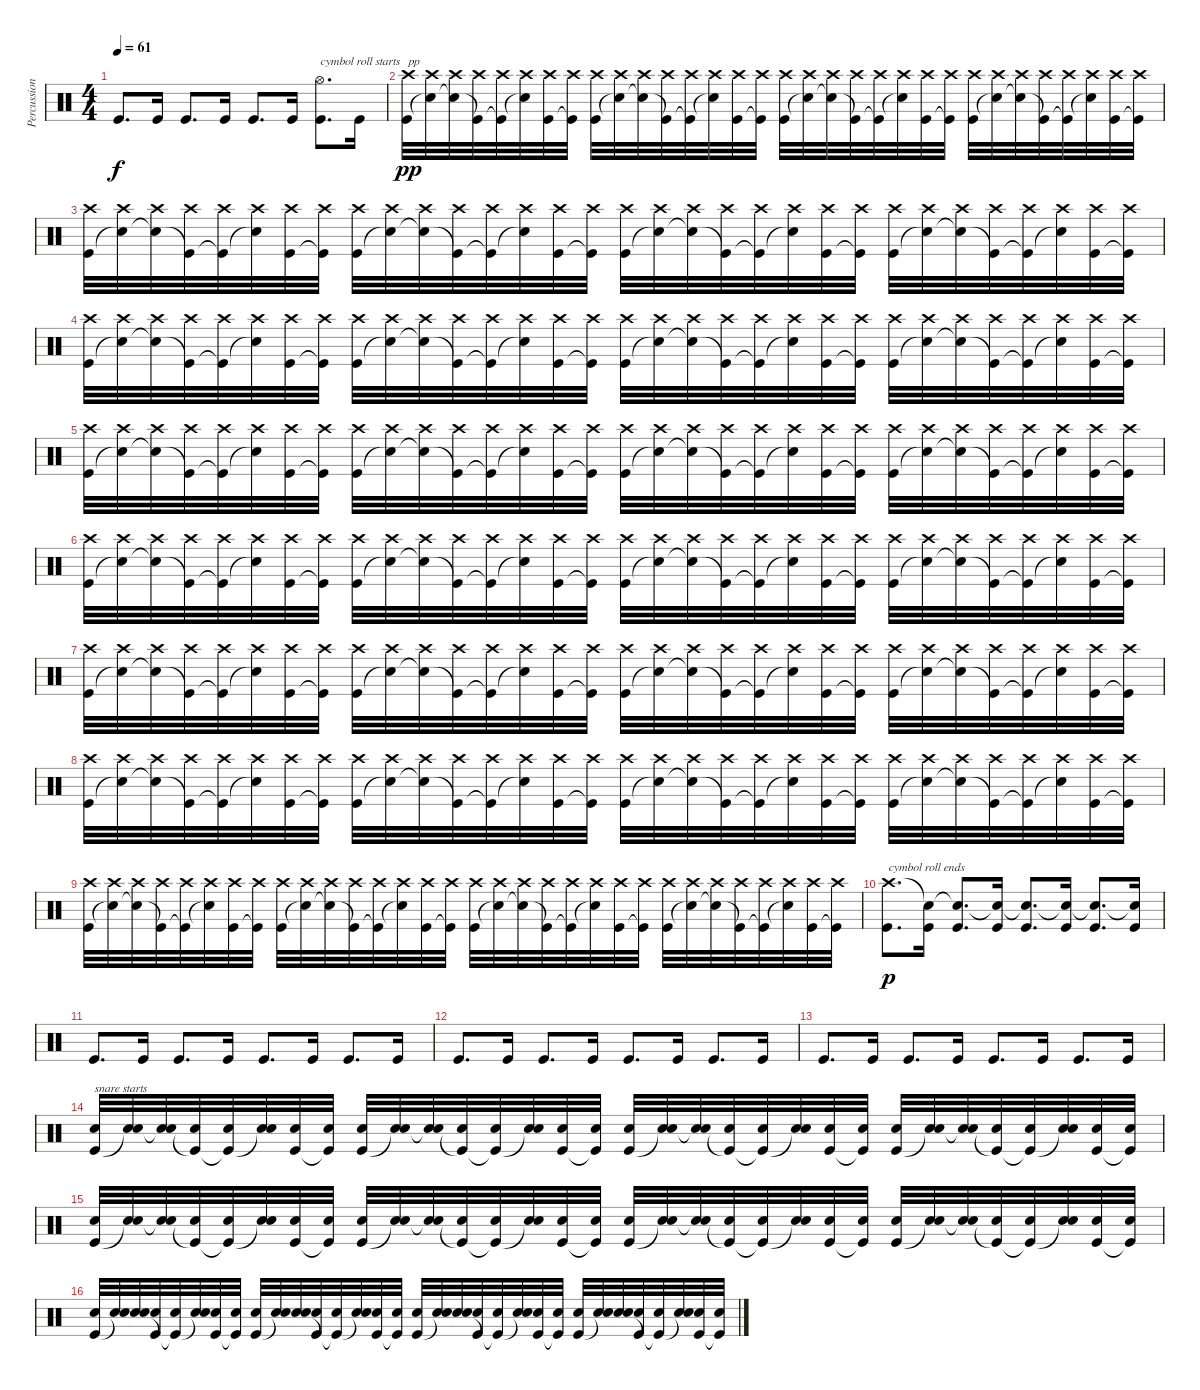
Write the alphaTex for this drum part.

\track ("Percussion" "Percussion") {instrument percussion}
\staff {score}
\articulation defaults
\ts (4 4)
\tempo 61
\clef neutral
\ks c "Kick (hit)".8{d dy f} "Kick (hit)".16 "Kick (hit)".8{d} "Kick (hit)".16 "Kick (hit)".8{d} "Kick (hit)".16
("Hi-Hat (open)" "Kick (hit)").8{d txt "cymbol roll starts"} "Kick (hit)".16 |
("Crash high (hit)" "Kick (hit)").32{txt "pp" dy pp} ("Crash high (hit)" "Snare (hit)"{t}).32 ("Crash high (hit)" "Snare (hit)"{t}).32 ("Crash high (hit)" "Kick (hit)"{t}).32 ("Crash high (hit)" "Kick (hit)"{t}).32 ("Crash high (hit)" "Snare (hit)"{t}).32 ("Crash high (hit)" "Kick (hit)").32 ("Crash high (hit)" "Kick (hit)"{t}).32 ("Crash high (hit)" "Kick (hit)").32 ("Crash high (hit)" "Snare (hit)"{t}).32 ("Crash high (hit)" "Snare (hit)"{t}).32 ("Crash high (hit)" "Kick (hit)"{t}).32 ("Crash high (hit)" "Kick (hit)"{t}).32 ("Crash high (hit)" "Snare (hit)"{t}).32 ("Crash high (hit)" "Kick (hit)").32 ("Crash high (hit)" "Kick (hit)"{t}).32 ("Crash high (hit)" "Kick (hit)").32 ("Crash high (hit)" "Snare (hit)"{t}).32 ("Crash high (hit)" "Snare (hit)"{t}).32 ("Crash high (hit)" "Kick (hit)"{t}).32 ("Crash high (hit)" "Kick (hit)"{t}).32 ("Crash high (hit)" "Snare (hit)"{t}).32 ("Crash high (hit)" "Kick (hit)").32 ("Crash high (hit)" "Kick (hit)"{t}).32 ("Crash high (hit)" "Kick (hit)").32 ("Crash high (hit)" "Snare (hit)"{t}).32 ("Crash high (hit)" "Snare (hit)"{t}).32 ("Crash high (hit)" "Kick (hit)"{t}).32 ("Crash high (hit)" "Kick (hit)"{t}).32 ("Crash high (hit)" "Snare (hit)"{t}).32 ("Crash high (hit)" "Kick (hit)").32 ("Crash high (hit)" "Kick (hit)"{t}).32 |
("Crash high (hit)" "Kick (hit)").32 ("Crash high (hit)" "Snare (hit)"{t}).32 ("Crash high (hit)" "Snare (hit)"{t}).32 ("Crash high (hit)" "Kick (hit)"{t}).32 ("Crash high (hit)" "Kick (hit)"{t}).32 ("Crash high (hit)" "Snare (hit)"{t}).32 ("Crash high (hit)" "Kick (hit)").32 ("Crash high (hit)" "Kick (hit)"{t}).32 ("Crash high (hit)" "Kick (hit)").32 ("Crash high (hit)" "Snare (hit)"{t}).32 ("Crash high (hit)" "Snare (hit)"{t}).32 ("Crash high (hit)" "Kick (hit)"{t}).32 ("Crash high (hit)" "Kick (hit)"{t}).32 ("Crash high (hit)" "Snare (hit)"{t}).32 ("Crash high (hit)" "Kick (hit)").32 ("Crash high (hit)" "Kick (hit)"{t}).32 ("Crash high (hit)" "Kick (hit)").32 ("Crash high (hit)" "Snare (hit)"{t}).32 ("Crash high (hit)" "Snare (hit)"{t}).32 ("Crash high (hit)" "Kick (hit)"{t}).32 ("Crash high (hit)" "Kick (hit)"{t}).32 ("Crash high (hit)" "Snare (hit)"{t}).32 ("Crash high (hit)" "Kick (hit)").32 ("Crash high (hit)" "Kick (hit)"{t}).32 ("Crash high (hit)" "Kick (hit)").32 ("Crash high (hit)" "Snare (hit)"{t}).32 ("Crash high (hit)" "Snare (hit)"{t}).32 ("Crash high (hit)" "Kick (hit)"{t}).32 ("Crash high (hit)" "Kick (hit)"{t}).32 ("Crash high (hit)" "Snare (hit)"{t}).32 ("Crash high (hit)" "Kick (hit)").32 ("Crash high (hit)" "Kick (hit)"{t}).32 |
("Crash high (hit)" "Kick (hit)").32 ("Crash high (hit)" "Snare (hit)"{t}).32 ("Crash high (hit)" "Snare (hit)"{t}).32 ("Crash high (hit)" "Kick (hit)"{t}).32 ("Crash high (hit)" "Kick (hit)"{t}).32 ("Crash high (hit)" "Snare (hit)"{t}).32 ("Crash high (hit)" "Kick (hit)").32 ("Crash high (hit)" "Kick (hit)"{t}).32 ("Crash high (hit)" "Kick (hit)").32 ("Crash high (hit)" "Snare (hit)"{t}).32 ("Crash high (hit)" "Snare (hit)"{t}).32 ("Crash high (hit)" "Kick (hit)"{t}).32 ("Crash high (hit)" "Kick (hit)"{t}).32 ("Crash high (hit)" "Snare (hit)"{t}).32 ("Crash high (hit)" "Kick (hit)").32 ("Crash high (hit)" "Kick (hit)"{t}).32 ("Crash high (hit)" "Kick (hit)").32 ("Crash high (hit)" "Snare (hit)"{t}).32 ("Crash high (hit)" "Snare (hit)"{t}).32 ("Crash high (hit)" "Kick (hit)"{t}).32 ("Crash high (hit)" "Kick (hit)"{t}).32 ("Crash high (hit)" "Snare (hit)"{t}).32 ("Crash high (hit)" "Kick (hit)").32 ("Crash high (hit)" "Kick (hit)"{t}).32 ("Crash high (hit)" "Kick (hit)").32 ("Crash high (hit)" "Snare (hit)"{t}).32 ("Crash high (hit)" "Snare (hit)"{t}).32 ("Crash high (hit)" "Kick (hit)"{t}).32 ("Crash high (hit)" "Kick (hit)"{t}).32 ("Crash high (hit)" "Snare (hit)"{t}).32 ("Crash high (hit)" "Kick (hit)").32 ("Crash high (hit)" "Kick (hit)"{t}).32 |
("Crash high (hit)" "Kick (hit)").32 ("Crash high (hit)" "Snare (hit)"{t}).32 ("Crash high (hit)" "Snare (hit)"{t}).32 ("Crash high (hit)" "Kick (hit)"{t}).32 ("Crash high (hit)" "Kick (hit)"{t}).32 ("Crash high (hit)" "Snare (hit)"{t}).32 ("Crash high (hit)" "Kick (hit)").32 ("Crash high (hit)" "Kick (hit)"{t}).32 ("Crash high (hit)" "Kick (hit)").32 ("Crash high (hit)" "Snare (hit)"{t}).32 ("Crash high (hit)" "Snare (hit)"{t}).32 ("Crash high (hit)" "Kick (hit)"{t}).32 ("Crash high (hit)" "Kick (hit)"{t}).32 ("Crash high (hit)" "Snare (hit)"{t}).32 ("Crash high (hit)" "Kick (hit)").32 ("Crash high (hit)" "Kick (hit)"{t}).32 ("Crash high (hit)" "Kick (hit)").32 ("Crash high (hit)" "Snare (hit)"{t}).32 ("Crash high (hit)" "Snare (hit)"{t}).32 ("Crash high (hit)" "Kick (hit)"{t}).32 ("Crash high (hit)" "Kick (hit)"{t}).32 ("Crash high (hit)" "Snare (hit)"{t}).32 ("Crash high (hit)" "Kick (hit)").32 ("Crash high (hit)" "Kick (hit)"{t}).32 ("Crash high (hit)" "Kick (hit)").32 ("Crash high (hit)" "Snare (hit)"{t}).32 ("Crash high (hit)" "Snare (hit)"{t}).32 ("Crash high (hit)" "Kick (hit)"{t}).32 ("Crash high (hit)" "Kick (hit)"{t}).32 ("Crash high (hit)" "Snare (hit)"{t}).32 ("Crash high (hit)" "Kick (hit)").32 ("Crash high (hit)" "Kick (hit)"{t}).32 |
("Crash high (hit)" "Kick (hit)").32 ("Crash high (hit)" "Snare (hit)"{t}).32 ("Crash high (hit)" "Snare (hit)"{t}).32 ("Crash high (hit)" "Kick (hit)"{t}).32 ("Crash high (hit)" "Kick (hit)"{t}).32 ("Crash high (hit)" "Snare (hit)"{t}).32 ("Crash high (hit)" "Kick (hit)").32 ("Crash high (hit)" "Kick (hit)"{t}).32 ("Crash high (hit)" "Kick (hit)").32 ("Crash high (hit)" "Snare (hit)"{t}).32 ("Crash high (hit)" "Snare (hit)"{t}).32 ("Crash high (hit)" "Kick (hit)"{t}).32 ("Crash high (hit)" "Kick (hit)"{t}).32 ("Crash high (hit)" "Snare (hit)"{t}).32 ("Crash high (hit)" "Kick (hit)").32 ("Crash high (hit)" "Kick (hit)"{t}).32 ("Crash high (hit)" "Kick (hit)").32 ("Crash high (hit)" "Snare (hit)"{t}).32 ("Crash high (hit)" "Snare (hit)"{t}).32 ("Crash high (hit)" "Kick (hit)"{t}).32 ("Crash high (hit)" "Kick (hit)"{t}).32 ("Crash high (hit)" "Snare (hit)"{t}).32 ("Crash high (hit)" "Kick (hit)").32 ("Crash high (hit)" "Kick (hit)"{t}).32 ("Crash high (hit)" "Kick (hit)").32 ("Crash high (hit)" "Snare (hit)"{t}).32 ("Crash high (hit)" "Snare (hit)"{t}).32 ("Crash high (hit)" "Kick (hit)"{t}).32 ("Crash high (hit)" "Kick (hit)"{t}).32 ("Crash high (hit)" "Snare (hit)"{t}).32 ("Crash high (hit)" "Kick (hit)").32 ("Crash high (hit)" "Kick (hit)"{t}).32 |
("Crash high (hit)" "Kick (hit)").32 ("Crash high (hit)" "Snare (hit)"{t}).32 ("Crash high (hit)" "Snare (hit)"{t}).32 ("Crash high (hit)" "Kick (hit)"{t}).32 ("Crash high (hit)" "Kick (hit)"{t}).32 ("Crash high (hit)" "Snare (hit)"{t}).32 ("Crash high (hit)" "Kick (hit)").32 ("Crash high (hit)" "Kick (hit)"{t}).32 ("Crash high (hit)" "Kick (hit)").32 ("Crash high (hit)" "Snare (hit)"{t}).32 ("Crash high (hit)" "Snare (hit)"{t}).32 ("Crash high (hit)" "Kick (hit)"{t}).32 ("Crash high (hit)" "Kick (hit)"{t}).32 ("Crash high (hit)" "Snare (hit)"{t}).32 ("Crash high (hit)" "Kick (hit)").32 ("Crash high (hit)" "Kick (hit)"{t}).32 ("Crash high (hit)" "Kick (hit)").32 ("Crash high (hit)" "Snare (hit)"{t}).32 ("Crash high (hit)" "Snare (hit)"{t}).32 ("Crash high (hit)" "Kick (hit)"{t}).32 ("Crash high (hit)" "Kick (hit)"{t}).32 ("Crash high (hit)" "Snare (hit)"{t}).32 ("Crash high (hit)" "Kick (hit)").32 ("Crash high (hit)" "Kick (hit)"{t}).32 ("Crash high (hit)" "Kick (hit)").32 ("Crash high (hit)" "Snare (hit)"{t}).32 ("Crash high (hit)" "Snare (hit)"{t}).32 ("Crash high (hit)" "Kick (hit)"{t}).32 ("Crash high (hit)" "Kick (hit)"{t}).32 ("Crash high (hit)" "Snare (hit)"{t}).32 ("Crash high (hit)" "Kick (hit)").32 ("Crash high (hit)" "Kick (hit)"{t}).32 |
("Crash high (hit)" "Kick (hit)").32 ("Crash high (hit)" "Snare (hit)"{t}).32 ("Crash high (hit)" "Snare (hit)"{t}).32 ("Crash high (hit)" "Kick (hit)"{t}).32 ("Crash high (hit)" "Kick (hit)"{t}).32 ("Crash high (hit)" "Snare (hit)"{t}).32 ("Crash high (hit)" "Kick (hit)").32 ("Crash high (hit)" "Kick (hit)"{t}).32 ("Crash high (hit)" "Kick (hit)").32 ("Crash high (hit)" "Snare (hit)"{t}).32 ("Crash high (hit)" "Snare (hit)"{t}).32 ("Crash high (hit)" "Kick (hit)"{t}).32 ("Crash high (hit)" "Kick (hit)"{t}).32 ("Crash high (hit)" "Snare (hit)"{t}).32 ("Crash high (hit)" "Kick (hit)").32 ("Crash high (hit)" "Kick (hit)"{t}).32 ("Crash high (hit)" "Kick (hit)").32 ("Crash high (hit)" "Snare (hit)"{t}).32 ("Crash high (hit)" "Snare (hit)"{t}).32 ("Crash high (hit)" "Kick (hit)"{t}).32 ("Crash high (hit)" "Kick (hit)"{t}).32 ("Crash high (hit)" "Snare (hit)"{t}).32 ("Crash high (hit)" "Kick (hit)").32 ("Crash high (hit)" "Kick (hit)"{t}).32 ("Crash high (hit)" "Kick (hit)").32 ("Crash high (hit)" "Snare (hit)"{t}).32 ("Crash high (hit)" "Snare (hit)"{t}).32 ("Crash high (hit)" "Kick (hit)"{t}).32 ("Crash high (hit)" "Kick (hit)"{t}).32 ("Crash high (hit)" "Snare (hit)"{t}).32 ("Crash high (hit)" "Kick (hit)").32 ("Crash high (hit)" "Kick (hit)"{t}).32 |
("Crash high (hit)" "Kick (hit)").32 ("Crash high (hit)" "Snare (hit)"{t}).32 ("Crash high (hit)" "Snare (hit)"{t}).32 ("Crash high (hit)" "Kick (hit)"{t}).32 ("Crash high (hit)" "Kick (hit)"{t}).32 ("Crash high (hit)" "Snare (hit)"{t}).32 ("Crash high (hit)" "Kick (hit)").32 ("Crash high (hit)" "Kick (hit)"{t}).32 ("Crash high (hit)" "Kick (hit)").32 ("Crash high (hit)" "Snare (hit)"{t}).32 ("Crash high (hit)" "Snare (hit)"{t}).32 ("Crash high (hit)" "Kick (hit)"{t}).32 ("Crash high (hit)" "Kick (hit)"{t}).32 ("Crash high (hit)" "Snare (hit)"{t}).32 ("Crash high (hit)" "Kick (hit)").32 ("Crash high (hit)" "Kick (hit)"{t}).32 ("Crash high (hit)" "Kick (hit)").32 ("Crash high (hit)" "Snare (hit)"{t}).32 ("Crash high (hit)" "Snare (hit)"{t}).32 ("Crash high (hit)" "Kick (hit)"{t}).32 ("Crash high (hit)" "Kick (hit)"{t}).32 ("Crash high (hit)" "Snare (hit)"{t}).32 ("Crash high (hit)" "Kick (hit)").32 ("Crash high (hit)" "Kick (hit)"{t}).32 ("Crash high (hit)" "Kick (hit)").32 ("Crash high (hit)" "Snare (hit)"{t}).32 ("Crash high (hit)" "Snare (hit)"{t}).32 ("Crash high (hit)" "Kick (hit)"{t}).32 ("Crash high (hit)" "Kick (hit)"{t}).32 ("Crash high (hit)" "Snare (hit)"{t}).32 ("Crash high (hit)" "Kick (hit)").32 ("Crash high (hit)" "Kick (hit)"{t}).32 |
("Crash high (hit)" "Kick (hit)").8{d txt "cymbol roll ends" dy p} ("Snare (hit)"{t} "Kick (hit)").16 ("Snare (hit)"{t} "Kick (hit)").8{d} ("Snare (hit)"{t} "Kick (hit)").16 ("Snare (hit)"{t} "Kick (hit)").8{d} ("Snare (hit)"{t} "Kick (hit)").16 ("Snare (hit)"{t} "Kick (hit)").8{d} ("Snare (hit)"{t} "Kick (hit)").16 |
"Kick (hit)".8{d} "Kick (hit)".16 "Kick (hit)".8{d} "Kick (hit)".16 "Kick (hit)".8{d} "Kick (hit)".16 "Kick (hit)".8{d} "Kick (hit)".16 |
"Kick (hit)".8{d} "Kick (hit)".16 "Kick (hit)".8{d} "Kick (hit)".16 "Kick (hit)".8{d} "Kick (hit)".16 "Kick (hit)".8{d} "Kick (hit)".16 |
"Kick (hit)".8{d} "Kick (hit)".16 "Kick (hit)".8{d} "Kick (hit)".16 "Kick (hit)".8{d} "Kick (hit)".16 "Kick (hit)".8{d} "Kick (hit)".16 |
("Snare (hit) 2" "Kick (hit)").32{txt "snare starts"} ("Snare (hit) 2" "Snare (hit)"{t}).32 ("Snare (hit) 2" "Snare (hit)"{t}).32 ("Snare (hit) 2" "Kick (hit)"{t}).32 ("Snare (hit) 2" "Kick (hit)"{t}).32 ("Snare (hit) 2" "Snare (hit)"{t}).32 ("Snare (hit) 2" "Kick (hit)").32 ("Snare (hit) 2" "Kick (hit)"{t}).32 ("Snare (hit) 2" "Kick (hit)").32 ("Snare (hit) 2" "Snare (hit)"{t}).32 ("Snare (hit) 2" "Snare (hit)"{t}).32 ("Snare (hit) 2" "Kick (hit)"{t}).32 ("Snare (hit) 2" "Kick (hit)"{t}).32 ("Snare (hit) 2" "Snare (hit)"{t}).32 ("Snare (hit) 2" "Kick (hit)").32 ("Snare (hit) 2" "Kick (hit)"{t}).32 ("Snare (hit) 2" "Kick (hit)").32 ("Snare (hit) 2" "Snare (hit)"{t}).32 ("Snare (hit) 2" "Snare (hit)"{t}).32 ("Snare (hit) 2" "Kick (hit)"{t}).32 ("Snare (hit) 2" "Kick (hit)"{t}).32 ("Snare (hit) 2" "Snare (hit)"{t}).32 ("Snare (hit) 2" "Kick (hit)").32 ("Snare (hit) 2" "Kick (hit)"{t}).32 ("Snare (hit) 2" "Kick (hit)").32 ("Snare (hit) 2" "Snare (hit)"{t}).32 ("Snare (hit) 2" "Snare (hit)"{t}).32 ("Snare (hit) 2" "Kick (hit)"{t}).32 ("Snare (hit) 2" "Kick (hit)"{t}).32 ("Snare (hit) 2" "Snare (hit)"{t}).32 ("Snare (hit) 2" "Kick (hit)").32 ("Snare (hit) 2" "Kick (hit)"{t}).32 |
("Snare (hit) 2" "Kick (hit)").32 ("Snare (hit) 2" "Snare (hit)"{t}).32 ("Snare (hit) 2" "Snare (hit)"{t}).32 ("Snare (hit) 2" "Kick (hit)"{t}).32 ("Snare (hit) 2" "Kick (hit)"{t}).32 ("Snare (hit) 2" "Snare (hit)"{t}).32 ("Snare (hit) 2" "Kick (hit)").32 ("Snare (hit) 2" "Kick (hit)"{t}).32 ("Snare (hit) 2" "Kick (hit)").32 ("Snare (hit) 2" "Snare (hit)"{t}).32 ("Snare (hit) 2" "Snare (hit)"{t}).32 ("Snare (hit) 2" "Kick (hit)"{t}).32 ("Snare (hit) 2" "Kick (hit)"{t}).32 ("Snare (hit) 2" "Snare (hit)"{t}).32 ("Snare (hit) 2" "Kick (hit)").32 ("Snare (hit) 2" "Kick (hit)"{t}).32 ("Snare (hit) 2" "Kick (hit)").32 ("Snare (hit) 2" "Snare (hit)"{t}).32 ("Snare (hit) 2" "Snare (hit)"{t}).32 ("Snare (hit) 2" "Kick (hit)"{t}).32 ("Snare (hit) 2" "Kick (hit)"{t}).32 ("Snare (hit) 2" "Snare (hit)"{t}).32 ("Snare (hit) 2" "Kick (hit)").32 ("Snare (hit) 2" "Kick (hit)"{t}).32 ("Snare (hit) 2" "Kick (hit)").32 ("Snare (hit) 2" "Snare (hit)"{t}).32 ("Snare (hit) 2" "Snare (hit)"{t}).32 ("Snare (hit) 2" "Kick (hit)"{t}).32 ("Snare (hit) 2" "Kick (hit)"{t}).32 ("Snare (hit) 2" "Snare (hit)"{t}).32 ("Snare (hit) 2" "Kick (hit)").32 ("Snare (hit) 2" "Kick (hit)"{t}).32 |
("Snare (hit) 2" "Kick (hit)").32 ("Snare (hit) 2" "Snare (hit)"{t}).32 ("Snare (hit) 2" "Snare (hit)"{t}).32 ("Snare (hit) 2" "Kick (hit)"{t}).32 ("Snare (hit) 2" "Kick (hit)"{t}).32 ("Snare (hit) 2" "Snare (hit)"{t}).32 ("Snare (hit) 2" "Kick (hit)").32 ("Snare (hit) 2" "Kick (hit)"{t}).32 ("Snare (hit) 2" "Kick (hit)").32 ("Snare (hit) 2" "Snare (hit)"{t}).32 ("Snare (hit) 2" "Snare (hit)"{t}).32 ("Snare (hit) 2" "Kick (hit)"{t}).32 ("Snare (hit) 2" "Kick (hit)"{t}).32 ("Snare (hit) 2" "Snare (hit)"{t}).32 ("Snare (hit) 2" "Kick (hit)").32 ("Snare (hit) 2" "Kick (hit)"{t}).32 ("Snare (hit) 2" "Kick (hit)").32 ("Snare (hit) 2" "Snare (hit)"{t}).32 ("Snare (hit) 2" "Snare (hit)"{t}).32 ("Snare (hit) 2" "Kick (hit)"{t}).32 ("Snare (hit) 2" "Kick (hit)"{t}).32 ("Snare (hit) 2" "Snare (hit)"{t}).32 ("Snare (hit) 2" "Kick (hit)").32 ("Snare (hit) 2" "Kick (hit)"{t}).32 ("Snare (hit) 2" "Kick (hit)").32 ("Snare (hit) 2" "Snare (hit)"{t}).32 ("Snare (hit) 2" "Snare (hit)"{t}).32 ("Snare (hit) 2" "Kick (hit)"{t}).32 ("Snare (hit) 2" "Kick (hit)"{t}).32 ("Snare (hit) 2" "Snare (hit)"{t}).32 ("Snare (hit) 2" "Kick (hit)").32 ("Snare (hit) 2" "Kick (hit)"{t}).32
